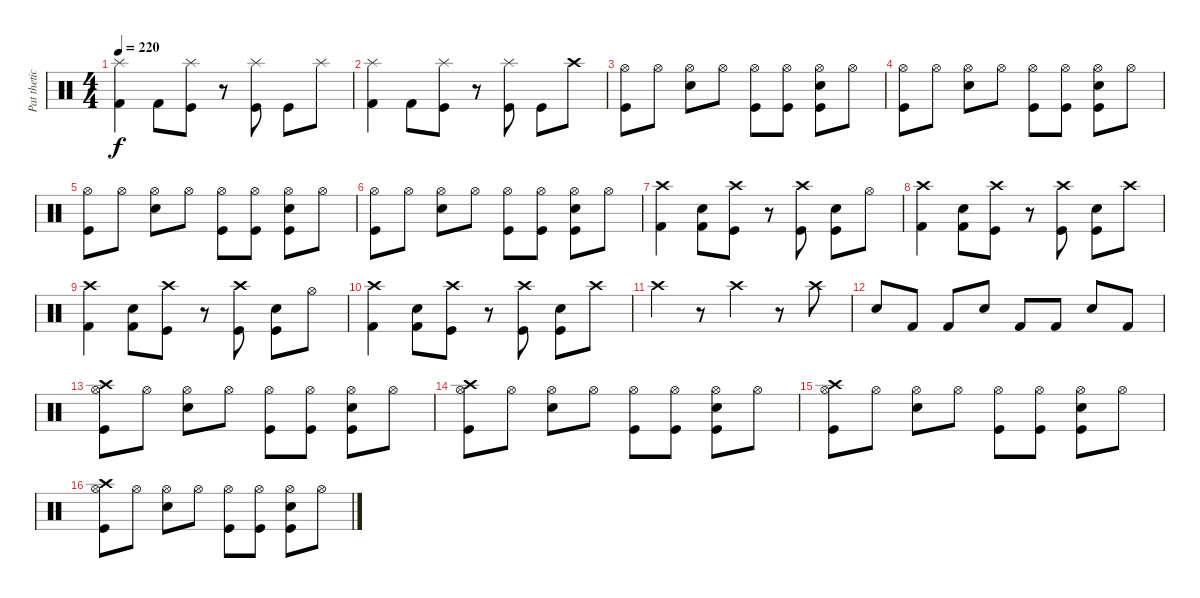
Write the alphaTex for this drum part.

\track ("Pat thetic (Drums)" "Pat thetic") {instrument percussion}
\staff {score}
\articulation defaults
\ts (4 4)
\tempo 220
\clef neutral
\ks c
("Kick (hit) 2" "Splash (hit)").4{dy f} "Kick (hit) 2".8 ("Kick (hit)" "Splash (hit)").8 r.8 ("Kick (hit)" "Splash (hit)").8 "Kick (hit)".8 "Splash (hit)".8 |
("Kick (hit) 2" "Splash (hit)").4 "Kick (hit) 2".8 ("Kick (hit)" "Splash (hit)").8 r.8 ("Kick (hit)" "Splash (hit)").8 "Kick (hit)".8 "Crash high (hit)".8 |
("Kick (hit)" "Hi-Hat (open)").8 "Hi-Hat (open)".8 ("Electric Snare (hit)" "Hi-Hat (open)").8 "Hi-Hat (open)".8 ("Kick (hit)" "Hi-Hat (open)").8 ("Kick (hit)" "Hi-Hat (open)").8 ("Kick (hit)" "Electric Snare (hit)" "Hi-Hat (open)").8 "Hi-Hat (open)".8 |
("Kick (hit)" "Hi-Hat (open)").8 "Hi-Hat (open)".8 ("Electric Snare (hit)" "Hi-Hat (open)").8 "Hi-Hat (open)".8 ("Kick (hit)" "Hi-Hat (open)").8 ("Kick (hit)" "Hi-Hat (open)").8 ("Kick (hit)" "Electric Snare (hit)" "Hi-Hat (open)").8 "Hi-Hat (open)".8 |
("Kick (hit)" "Hi-Hat (open)").8 "Hi-Hat (open)".8 ("Electric Snare (hit)" "Hi-Hat (open)").8 "Hi-Hat (open)".8 ("Kick (hit)" "Hi-Hat (open)").8 ("Kick (hit)" "Hi-Hat (open)").8 ("Kick (hit)" "Electric Snare (hit)" "Hi-Hat (open)").8 "Hi-Hat (open)".8 |
("Kick (hit)" "Hi-Hat (open)").8 "Hi-Hat (open)".8 ("Electric Snare (hit)" "Hi-Hat (open)").8 "Hi-Hat (open)".8 ("Kick (hit)" "Hi-Hat (open)").8 ("Kick (hit)" "Hi-Hat (open)").8 ("Kick (hit)" "Electric Snare (hit)" "Hi-Hat (open)").8 "Hi-Hat (open)".8 |
("Kick (hit) 2" "Crash high (hit)").4 ("Kick (hit) 2" "Electric Snare (hit)").8 ("Kick (hit)" "Crash high (hit)").8 r.8 ("Kick (hit)" "Crash high (hit)").8 ("Kick (hit)" "Electric Snare (hit)").8 "Hi-Hat (open)".8 |
("Kick (hit) 2" "Crash high (hit)").4 ("Kick (hit) 2" "Electric Snare (hit)").8 ("Kick (hit)" "Crash high (hit)").8 r.8 ("Kick (hit)" "Crash high (hit)").8 ("Kick (hit)" "Electric Snare (hit)").8 "Crash high (hit)".8 |
("Kick (hit) 2" "Crash high (hit)").4 ("Kick (hit) 2" "Electric Snare (hit)").8 ("Kick (hit)" "Crash high (hit)").8 r.8 ("Kick (hit)" "Crash high (hit)").8 ("Kick (hit)" "Electric Snare (hit)").8 "Hi-Hat (open)".8 |
("Kick (hit) 2" "Crash high (hit)").4 ("Kick (hit) 2" "Electric Snare (hit)").8 ("Kick (hit)" "Crash high (hit)").8 r.8 ("Kick (hit)" "Crash high (hit)").8 ("Kick (hit)" "Electric Snare (hit)").8 "Crash high (hit)".8 |
"Crash high (hit)".4 r.8 "Crash high (hit)".4 r.8 "Crash high (hit)".8 |
"Electric Snare (hit)".8 "Kick (hit) 2".8 "Kick (hit) 2".8 "Electric Snare (hit)".8 "Kick (hit) 2".8 "Kick (hit) 2".8 "Electric Snare (hit)".8 "Kick (hit) 2".8 |
("Kick (hit)" "Crash high (hit)" "Hi-Hat (open)").8 "Hi-Hat (open)".8 ("Electric Snare (hit)" "Hi-Hat (open)").8 "Hi-Hat (open)".8 ("Kick (hit)" "Hi-Hat (open)").8 ("Kick (hit)" "Hi-Hat (open)").8 ("Kick (hit)" "Electric Snare (hit)" "Hi-Hat (open)").8 "Hi-Hat (open)".8 |
("Kick (hit)" "Crash high (hit)" "Hi-Hat (open)").8 "Hi-Hat (open)".8 ("Electric Snare (hit)" "Hi-Hat (open)").8 "Hi-Hat (open)".8 ("Kick (hit)" "Hi-Hat (open)").8 ("Kick (hit)" "Hi-Hat (open)").8 ("Kick (hit)" "Electric Snare (hit)" "Hi-Hat (open)").8 "Hi-Hat (open)".8 |
("Kick (hit)" "Crash high (hit)" "Hi-Hat (open)").8 "Hi-Hat (open)".8 ("Electric Snare (hit)" "Hi-Hat (open)").8 "Hi-Hat (open)".8 ("Kick (hit)" "Hi-Hat (open)").8 ("Kick (hit)" "Hi-Hat (open)").8 ("Kick (hit)" "Electric Snare (hit)" "Hi-Hat (open)").8 "Hi-Hat (open)".8 |
("Kick (hit)" "Crash high (hit)" "Hi-Hat (open)").8 "Hi-Hat (open)".8 ("Electric Snare (hit)" "Hi-Hat (open)").8 "Hi-Hat (open)".8 ("Kick (hit)" "Hi-Hat (open)").8 ("Kick (hit)" "Hi-Hat (open)").8 ("Kick (hit)" "Electric Snare (hit)" "Hi-Hat (open)").8 "Hi-Hat (open)".8
